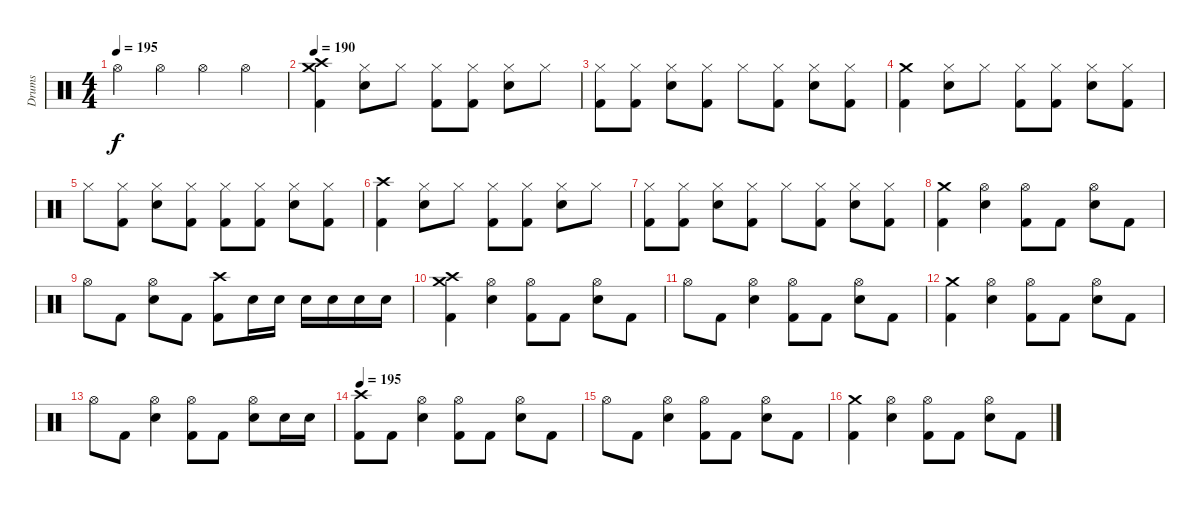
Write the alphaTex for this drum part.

\track ("Drums" "Drums") {instrument percussion}
\staff {score}
\articulation defaults
\ts (4 4)
\tempo 195
\tempo 190
\tempo 195
\clef neutral
\ks c "Hi-Hat (open)".4{dy f} "Hi-Hat (open)".4 "Hi-Hat (open)".4 "Hi-Hat (open)".4
|
\tempo 190
("Crash high (hit)" "Crash medium (hit)" "Kick (hit) 2").4 ("Hi-Hat (closed)" "Electric Snare (hit)").8 "Hi-Hat (closed)".8 ("Hi-Hat (closed)" "Kick (hit) 2").8 ("Hi-Hat (closed)" "Kick (hit) 2").8 ("Hi-Hat (closed)" "Electric Snare (hit)").8 "Hi-Hat (closed)".8 |
("Hi-Hat (closed)" "Kick (hit) 2").8 ("Hi-Hat (closed)" "Kick (hit) 2").8 ("Hi-Hat (closed)" "Electric Snare (hit)").8 ("Hi-Hat (closed)" "Kick (hit) 2").8 "Hi-Hat (closed)".8 ("Hi-Hat (closed)" "Kick (hit) 2").8 ("Hi-Hat (closed)" "Electric Snare (hit)").8 ("Hi-Hat (closed)" "Kick (hit) 2").8 |
("Crash medium (hit)" "Kick (hit) 2").4 ("Hi-Hat (closed)" "Electric Snare (hit)").8 "Hi-Hat (closed)".8 ("Hi-Hat (closed)" "Kick (hit) 2").8 ("Hi-Hat (closed)" "Kick (hit) 2").8 ("Hi-Hat (closed)" "Electric Snare (hit)").8 ("Hi-Hat (closed)" "Kick (hit) 2").8 |
"Hi-Hat (closed)".8 ("Hi-Hat (closed)" "Kick (hit) 2").8 ("Hi-Hat (closed)" "Electric Snare (hit)").8 ("Hi-Hat (closed)" "Kick (hit) 2").8 ("Hi-Hat (closed)" "Kick (hit) 2").8 ("Hi-Hat (closed)" "Kick (hit) 2").8 ("Hi-Hat (closed)" "Electric Snare (hit)").8 ("Hi-Hat (closed)" "Kick (hit) 2").8 |
("Crash high (hit)" "Kick (hit) 2").4 ("Hi-Hat (closed)" "Electric Snare (hit)").8 "Hi-Hat (closed)".8 ("Hi-Hat (closed)" "Kick (hit) 2").8 ("Hi-Hat (closed)" "Kick (hit) 2").8 ("Hi-Hat (closed)" "Electric Snare (hit)").8 "Hi-Hat (closed)".8 |
("Hi-Hat (closed)" "Kick (hit) 2").8 ("Hi-Hat (closed)" "Kick (hit) 2").8 ("Hi-Hat (closed)" "Electric Snare (hit)").8 ("Hi-Hat (closed)" "Kick (hit) 2").8 "Hi-Hat (closed)".8 ("Hi-Hat (closed)" "Kick (hit) 2").8 ("Hi-Hat (closed)" "Electric Snare (hit)").8 ("Hi-Hat (closed)" "Kick (hit) 2").8 |
("Crash medium (hit)" "Kick (hit) 2").4 ("Hi-Hat (open)" "Electric Snare (hit)").4 ("Hi-Hat (open)" "Kick (hit) 2").8 "Kick (hit) 2".8 ("Hi-Hat (open)" "Electric Snare (hit)").8 "Kick (hit) 2".8 |
"Hi-Hat (open)".8 "Kick (hit) 2".8 ("Hi-Hat (open)" "Electric Snare (hit)").8 "Kick (hit) 2".8 ("Crash high (hit)" "Kick (hit) 2").8 "Electric Snare (hit)".16 "Electric Snare (hit)".16 "Electric Snare (hit)".16 "Electric Snare (hit)".16 "Electric Snare (hit)".16 "Electric Snare (hit)".16 |
("Crash high (hit)" "Crash medium (hit)" "Kick (hit) 2").4 ("Hi-Hat (open)" "Electric Snare (hit)").4 ("Hi-Hat (open)" "Kick (hit) 2").8 "Kick (hit) 2".8 ("Hi-Hat (open)" "Electric Snare (hit)").8 "Kick (hit) 2".8 |
"Hi-Hat (open)".8 "Kick (hit) 2".8 ("Hi-Hat (open)" "Electric Snare (hit)").4 ("Hi-Hat (open)" "Kick (hit) 2").8 "Kick (hit) 2".8 ("Hi-Hat (open)" "Electric Snare (hit)").8 "Kick (hit) 2".8 |
("Crash medium (hit)" "Kick (hit) 2").4 ("Hi-Hat (open)" "Electric Snare (hit)").4 ("Hi-Hat (open)" "Kick (hit) 2").8 "Kick (hit) 2".8 ("Hi-Hat (open)" "Electric Snare (hit)").8 "Kick (hit) 2".8 |
"Hi-Hat (open)".8 "Kick (hit) 2".8 ("Hi-Hat (open)" "Electric Snare (hit)").4 ("Hi-Hat (open)" "Kick (hit) 2").8 "Kick (hit) 2".8 ("Hi-Hat (open)" "Electric Snare (hit)").8 "Electric Snare (hit)".16 "Electric Snare (hit)".16 |
\tempo 195
("Crash high (hit)" "Kick (hit) 2").8 "Kick (hit) 2".8 ("Hi-Hat (open)" "Electric Snare (hit)").4 ("Hi-Hat (open)" "Kick (hit) 2").8 "Kick (hit) 2".8 ("Hi-Hat (open)" "Electric Snare (hit)").8 "Kick (hit) 2".8 |
"Hi-Hat (open)".8 "Kick (hit) 2".8 ("Hi-Hat (open)" "Electric Snare (hit)").4 ("Hi-Hat (open)" "Kick (hit) 2").8 "Kick (hit) 2".8 ("Hi-Hat (open)" "Electric Snare (hit)").8 "Kick (hit) 2".8 |
("Crash medium (hit)" "Kick (hit) 2").4 ("Hi-Hat (open)" "Electric Snare (hit)").4 ("Hi-Hat (open)" "Kick (hit) 2").8 "Kick (hit) 2".8 ("Hi-Hat (open)" "Electric Snare (hit)").8 "Kick (hit) 2".8
